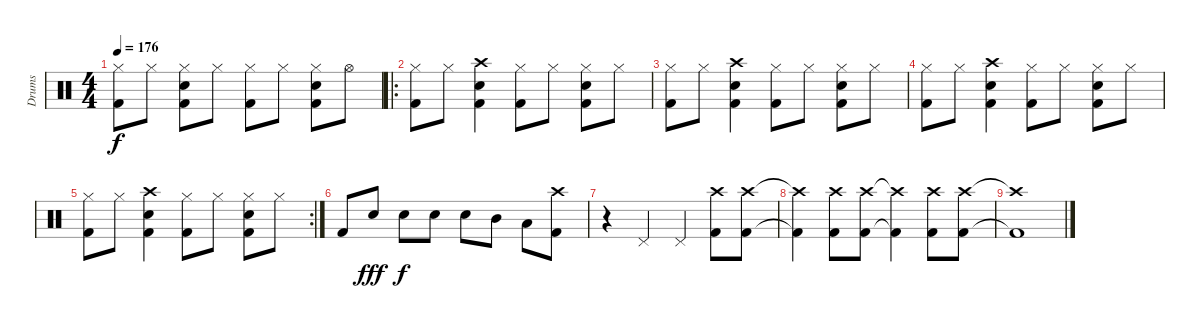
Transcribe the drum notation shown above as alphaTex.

\track ("Drums" "Drums") {instrument percussion}
\staff {score}
\articulation defaults
\ts (4 4)
\tempo 176
\clef neutral
\ks c
("Hi-Hat (closed)" "Kick (hit) 2").8{dy f} "Hi-Hat (closed)".8 ("Hi-Hat (closed)" "Snare (hit) 2" "Kick (hit) 2").8 "Hi-Hat (closed)".8 ("Hi-Hat (closed)" "Kick (hit) 2").8 "Hi-Hat (closed)".8 ("Hi-Hat (closed)" "Snare (hit) 2" "Kick (hit) 2").8 "Hi-Hat (open)".8 |
\ro
("Hi-Hat (closed)" "Kick (hit) 2").8 "Hi-Hat (closed)".8 ("Crash high (hit)" "Snare (hit) 2" "Kick (hit) 2").4 ("Hi-Hat (closed)" "Kick (hit) 2").8 "Hi-Hat (closed)".8 ("Hi-Hat (closed)" "Snare (hit) 2" "Kick (hit) 2").8 "Hi-Hat (closed)".8 |
("Hi-Hat (closed)" "Kick (hit) 2").8 "Hi-Hat (closed)".8 ("Crash high (hit)" "Snare (hit) 2" "Kick (hit) 2").4 ("Hi-Hat (closed)" "Kick (hit) 2").8 "Hi-Hat (closed)".8 ("Hi-Hat (closed)" "Snare (hit) 2" "Kick (hit) 2").8 "Hi-Hat (closed)".8 |
("Hi-Hat (closed)" "Kick (hit) 2").8 "Hi-Hat (closed)".8 ("Crash high (hit)" "Snare (hit) 2" "Kick (hit) 2").4 ("Hi-Hat (closed)" "Kick (hit) 2").8 "Hi-Hat (closed)".8 ("Hi-Hat (closed)" "Snare (hit) 2" "Kick (hit) 2").8 "Hi-Hat (closed)".8 |
\rc 2
("Hi-Hat (closed)" "Kick (hit) 2").8 "Hi-Hat (closed)".8 ("Crash high (hit)" "Snare (hit) 2" "Kick (hit) 2").4 ("Hi-Hat (closed)" "Kick (hit) 2").8 "Hi-Hat (closed)".8 ("Hi-Hat (closed)" "Snare (hit) 2" "Kick (hit) 2").8 "Hi-Hat (closed)".8 |
"Kick (hit) 2".8 "Snare (hit) 2".8{dy fff} "Snare (hit) 2".8{dy f} "Snare (hit) 2".8 "Snare (hit) 2".8 "Mid Tom (hit)".8 "Low Tom (hit)".8 ("Crash high (hit)" "Kick (hit) 2").8 |
r.4 "Pedal Hi-Hat (hit)".4 "Pedal Hi-Hat (hit)".4 ("Crash high (hit)" "Kick (hit) 2").8 ("Crash high (hit)" "Kick (hit) 2").8 |
("Crash high (hit)"{t} "Kick (hit) 2"{t}).4 ("Crash high (hit)" "Kick (hit) 2").8 ("Crash high (hit)" "Kick (hit) 2").8 ("Crash high (hit)"{t} "Kick (hit) 2"{t}).4 ("Crash high (hit)" "Kick (hit) 2").8 ("Crash high (hit)" "Kick (hit) 2").8 |
("Crash high (hit)"{t} "Kick (hit) 2"{t}).1
